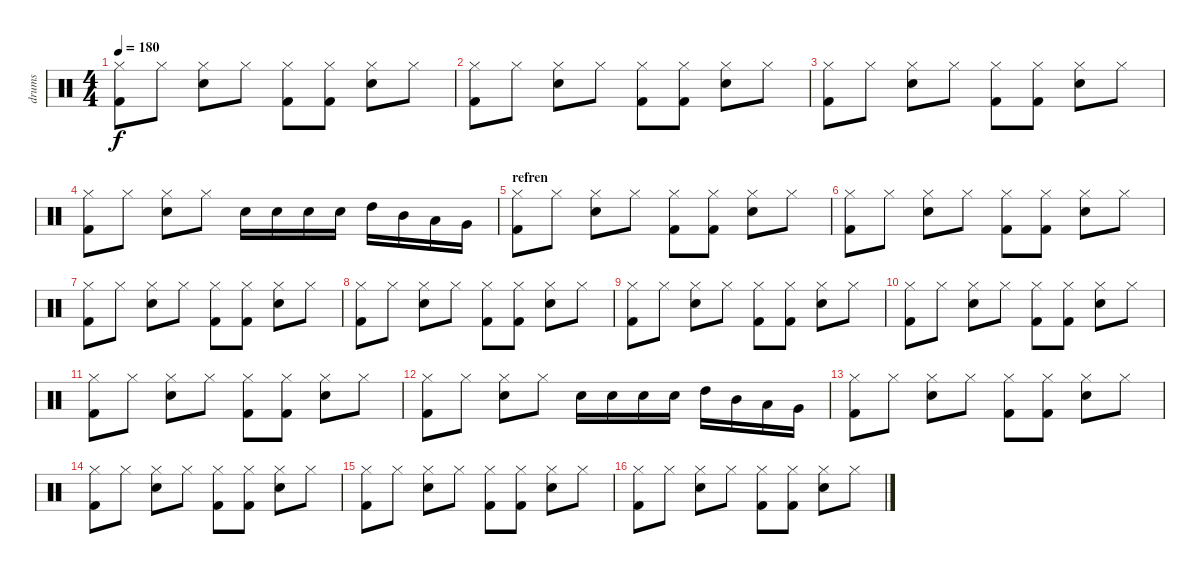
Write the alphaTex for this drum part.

\track ("drums" "drums") {instrument percussion}
\staff {score}
\articulation defaults
\ts (4 4)
\tempo 180
\clef neutral
\ks c
("Hi-Hat (closed)" "Kick (hit) 2").8{dy f} "Hi-Hat (closed)".8 ("Hi-Hat (closed)" "Snare (hit) 2").8 "Hi-Hat (closed)".8 ("Hi-Hat (closed)" "Kick (hit) 2").8 ("Hi-Hat (closed)" "Kick (hit) 2").8 ("Hi-Hat (closed)" "Snare (hit) 2").8 "Hi-Hat (closed)".8 |
("Hi-Hat (closed)" "Kick (hit) 2").8 "Hi-Hat (closed)".8 ("Hi-Hat (closed)" "Snare (hit) 2").8 "Hi-Hat (closed)".8 ("Hi-Hat (closed)" "Kick (hit) 2").8 ("Hi-Hat (closed)" "Kick (hit) 2").8 ("Hi-Hat (closed)" "Snare (hit) 2").8 "Hi-Hat (closed)".8 |
("Hi-Hat (closed)" "Kick (hit) 2").8 "Hi-Hat (closed)".8 ("Hi-Hat (closed)" "Snare (hit) 2").8 "Hi-Hat (closed)".8 ("Hi-Hat (closed)" "Kick (hit) 2").8 ("Hi-Hat (closed)" "Kick (hit) 2").8 ("Hi-Hat (closed)" "Snare (hit) 2").8 "Hi-Hat (closed)".8 |
("Hi-Hat (closed)" "Kick (hit) 2").8 "Hi-Hat (closed)".8 ("Hi-Hat (closed)" "Snare (hit) 2").8 "Hi-Hat (closed)".8 "Snare (hit) 2".16 "Snare (hit) 2".16 "Snare (hit) 2".16 "Snare (hit) 2".16 "High Tom (hit)".16 "Mid Tom (hit)".16 "Low Tom (hit)".16 "Very Low Tom (hit)".16 |
\section ("" "refren")
("Hi-Hat (closed)" "Kick (hit) 2").8 "Hi-Hat (closed)".8 ("Hi-Hat (closed)" "Snare (hit) 2").8 "Hi-Hat (closed)".8 ("Hi-Hat (closed)" "Kick (hit) 2").8 ("Hi-Hat (closed)" "Kick (hit) 2").8 ("Hi-Hat (closed)" "Snare (hit) 2").8 "Hi-Hat (closed)".8 |
("Hi-Hat (closed)" "Kick (hit) 2").8 "Hi-Hat (closed)".8 ("Hi-Hat (closed)" "Snare (hit) 2").8 "Hi-Hat (closed)".8 ("Hi-Hat (closed)" "Kick (hit) 2").8 ("Hi-Hat (closed)" "Kick (hit) 2").8 ("Hi-Hat (closed)" "Snare (hit) 2").8 "Hi-Hat (closed)".8 |
("Hi-Hat (closed)" "Kick (hit) 2").8 "Hi-Hat (closed)".8 ("Hi-Hat (closed)" "Snare (hit) 2").8 "Hi-Hat (closed)".8 ("Hi-Hat (closed)" "Kick (hit) 2").8 ("Hi-Hat (closed)" "Kick (hit) 2").8 ("Hi-Hat (closed)" "Snare (hit) 2").8 "Hi-Hat (closed)".8 |
("Hi-Hat (closed)" "Kick (hit) 2").8 "Hi-Hat (closed)".8 ("Hi-Hat (closed)" "Snare (hit) 2").8 "Hi-Hat (closed)".8 ("Hi-Hat (closed)" "Kick (hit) 2").8 ("Hi-Hat (closed)" "Kick (hit) 2").8 ("Hi-Hat (closed)" "Snare (hit) 2").8 "Hi-Hat (closed)".8 |
("Hi-Hat (closed)" "Kick (hit) 2").8 "Hi-Hat (closed)".8 ("Hi-Hat (closed)" "Snare (hit) 2").8 "Hi-Hat (closed)".8 ("Hi-Hat (closed)" "Kick (hit) 2").8 ("Hi-Hat (closed)" "Kick (hit) 2").8 ("Hi-Hat (closed)" "Snare (hit) 2").8 "Hi-Hat (closed)".8 |
("Hi-Hat (closed)" "Kick (hit) 2").8 "Hi-Hat (closed)".8 ("Hi-Hat (closed)" "Snare (hit) 2").8 "Hi-Hat (closed)".8 ("Hi-Hat (closed)" "Kick (hit) 2").8 ("Hi-Hat (closed)" "Kick (hit) 2").8 ("Hi-Hat (closed)" "Snare (hit) 2").8 "Hi-Hat (closed)".8 |
("Hi-Hat (closed)" "Kick (hit) 2").8 "Hi-Hat (closed)".8 ("Hi-Hat (closed)" "Snare (hit) 2").8 "Hi-Hat (closed)".8 ("Hi-Hat (closed)" "Kick (hit) 2").8 ("Hi-Hat (closed)" "Kick (hit) 2").8 ("Hi-Hat (closed)" "Snare (hit) 2").8 "Hi-Hat (closed)".8 |
("Hi-Hat (closed)" "Kick (hit) 2").8 "Hi-Hat (closed)".8 ("Hi-Hat (closed)" "Snare (hit) 2").8 "Hi-Hat (closed)".8 "Snare (hit) 2".16 "Snare (hit) 2".16 "Snare (hit) 2".16 "Snare (hit) 2".16 "High Tom (hit)".16 "Mid Tom (hit)".16 "Low Tom (hit)".16 "Very Low Tom (hit)".16 |
("Hi-Hat (closed)" "Kick (hit) 2").8 "Hi-Hat (closed)".8 ("Hi-Hat (closed)" "Snare (hit) 2").8 "Hi-Hat (closed)".8 ("Hi-Hat (closed)" "Kick (hit) 2").8 ("Hi-Hat (closed)" "Kick (hit) 2").8 ("Hi-Hat (closed)" "Snare (hit) 2").8 "Hi-Hat (closed)".8 |
("Hi-Hat (closed)" "Kick (hit) 2").8 "Hi-Hat (closed)".8 ("Hi-Hat (closed)" "Snare (hit) 2").8 "Hi-Hat (closed)".8 ("Hi-Hat (closed)" "Kick (hit) 2").8 ("Hi-Hat (closed)" "Kick (hit) 2").8 ("Hi-Hat (closed)" "Snare (hit) 2").8 "Hi-Hat (closed)".8 |
("Hi-Hat (closed)" "Kick (hit) 2").8 "Hi-Hat (closed)".8 ("Hi-Hat (closed)" "Snare (hit) 2").8 "Hi-Hat (closed)".8 ("Hi-Hat (closed)" "Kick (hit) 2").8 ("Hi-Hat (closed)" "Kick (hit) 2").8 ("Hi-Hat (closed)" "Snare (hit) 2").8 "Hi-Hat (closed)".8 |
("Hi-Hat (closed)" "Kick (hit) 2").8 "Hi-Hat (closed)".8 ("Hi-Hat (closed)" "Snare (hit) 2").8 "Hi-Hat (closed)".8 ("Hi-Hat (closed)" "Kick (hit) 2").8 ("Hi-Hat (closed)" "Kick (hit) 2").8 ("Hi-Hat (closed)" "Snare (hit) 2").8 "Hi-Hat (closed)".8
